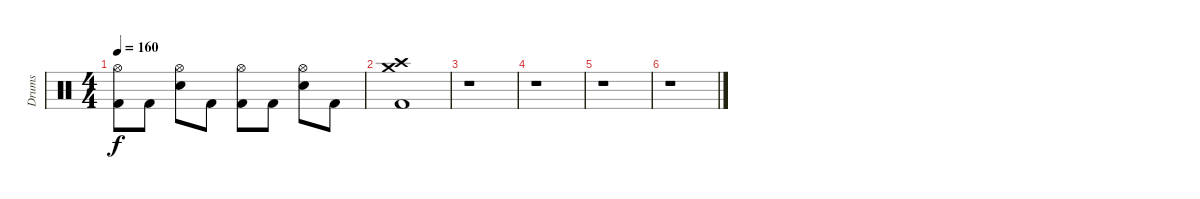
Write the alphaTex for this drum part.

\track ("Drums" "Drums") {instrument percussion}
\staff {score}
\articulation defaults
\ts (4 4)
\tempo 160
\clef neutral
\ks c
("Kick (hit) 2" "Hi-Hat (open)").8{dy f} "Kick (hit) 2".8 ("Electric Snare (hit)" "Hi-Hat (open)").8 "Kick (hit) 2".8 ("Kick (hit) 2" "Hi-Hat (open)").8 "Kick (hit) 2".8 ("Electric Snare (hit)" "Hi-Hat (open)").8 "Kick (hit) 2".8 |
("Kick (hit) 2" "Crash high (hit)" "Crash medium (hit)").1 |
r.1 |
r.1 |
r.1 |
r.1
